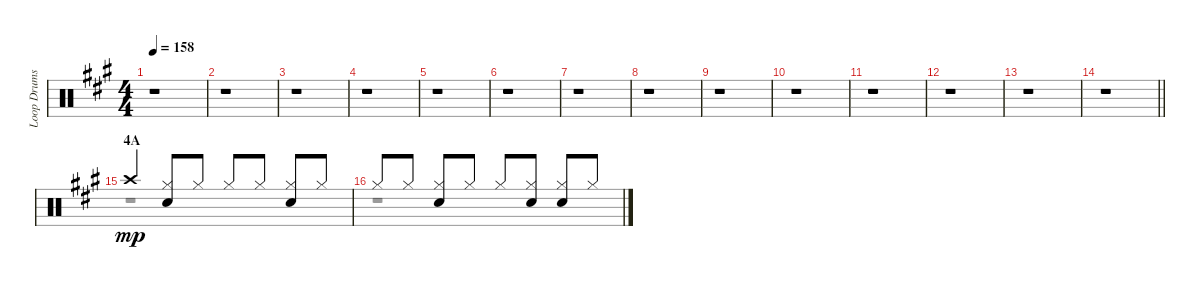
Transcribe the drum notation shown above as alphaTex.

\track ("Loop Drums" "Loop Drums") {instrument percussion}
\staff {score}
\articulation defaults
\voice
\ts (4 4)
\tempo 158
\clef neutral
\ks a
r.1{dy mp} |
r.1 |
r.1 |
r.1 |
r.1 |
r.1 |
r.1 |
r.1 |
r.1 |
r.1 |
r.1 |
r.1 |
r.1 |
\barLineRight lightlight
r.1 |
\section ("" "4A")
"Crash high (hit)".4 ("Hi-Hat (closed)" "Electric Snare (hit)").8 "Hi-Hat (closed)".8 "Hi-Hat (closed)".8 "Hi-Hat (closed)".8 ("Hi-Hat (closed)" "Electric Snare (hit)").8 "Hi-Hat (closed)".8 |
"Hi-Hat (closed)".8 "Hi-Hat (closed)".8 ("Hi-Hat (closed)" "Electric Snare (hit)").8 "Hi-Hat (closed)".8 "Hi-Hat (closed)".8 ("Hi-Hat (closed)" "Electric Snare (hit)").8 ("Hi-Hat (closed)" "Electric Snare (hit)").8 "Hi-Hat (closed)".8
\voice
\clef neutral
\ottava regular
\simile none
\ks a
r.1{dy f} |
r.1 |
r.1 |
r.1 |
r.1 |
r.1 |
r.1 |
r.1 |
r.1 |
r.1 |
r.1 |
r.1 |
r.1 |
\barLineRight lightlight
r.1 |
r.1 |
r.1
